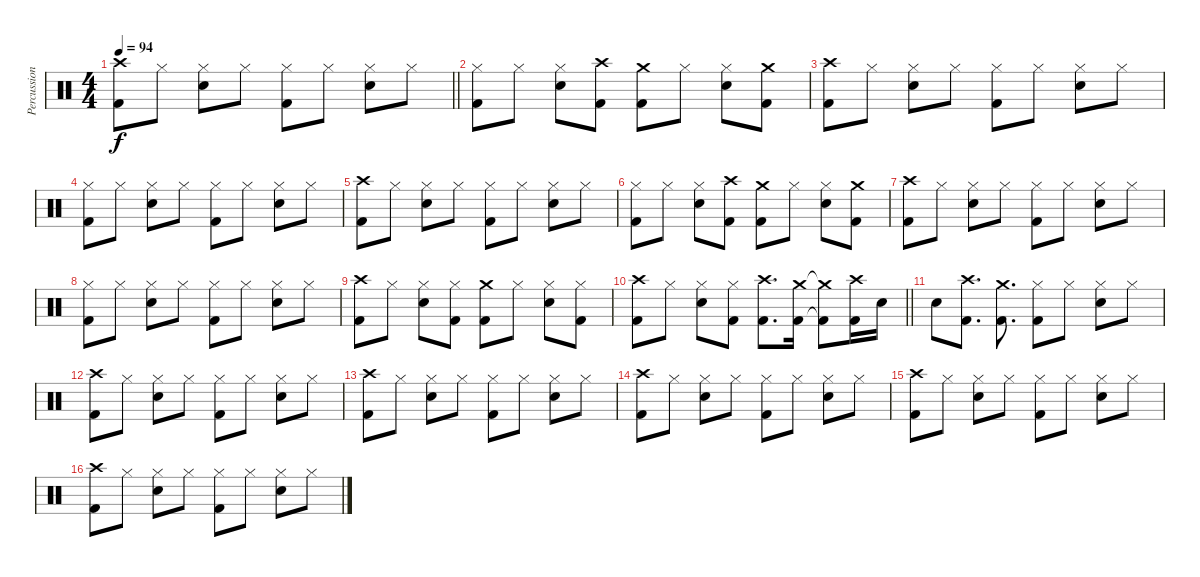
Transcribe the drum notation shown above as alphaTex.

\track ("Percussion" "Percussion") {instrument percussion}
\staff {score}
\articulation defaults
\ts (4 4)
\tempo 94
\clef neutral
\barLineRight lightlight
\ks c
("Crash high (hit)" "Kick (hit) 2").8{dy f} "Hi-Hat (closed)".8 ("Hi-Hat (closed)" "Snare (hit) 2").8 "Hi-Hat (closed)".8 ("Hi-Hat (closed)" "Kick (hit) 2").8 "Hi-Hat (closed)".8 ("Hi-Hat (closed)" "Snare (hit) 2").8 "Hi-Hat (closed)".8 |
("Hi-Hat (closed)" "Kick (hit) 2").8 "Hi-Hat (closed)".8 ("Hi-Hat (closed)" "Snare (hit) 2").8 ("Crash high (hit)" "Kick (hit) 2").8 ("Crash medium (hit)" "Kick (hit) 2").8 "Hi-Hat (closed)".8 ("Hi-Hat (closed)" "Snare (hit) 2").8 ("Crash medium (hit)" "Kick (hit) 2").8 |
("Crash high (hit)" "Kick (hit) 2").8 "Hi-Hat (closed)".8 ("Hi-Hat (closed)" "Snare (hit) 2").8 "Hi-Hat (closed)".8 ("Hi-Hat (closed)" "Kick (hit) 2").8 "Hi-Hat (closed)".8 ("Hi-Hat (closed)" "Snare (hit) 2").8 "Hi-Hat (closed)".8 |
("Hi-Hat (closed)" "Kick (hit) 2").8 "Hi-Hat (closed)".8 ("Hi-Hat (closed)" "Snare (hit) 2").8 "Hi-Hat (closed)".8 ("Hi-Hat (closed)" "Kick (hit) 2").8 "Hi-Hat (closed)".8 ("Hi-Hat (closed)" "Snare (hit) 2").8 "Hi-Hat (closed)".8 |
("Crash high (hit)" "Kick (hit) 2").8 "Hi-Hat (closed)".8 ("Hi-Hat (closed)" "Snare (hit) 2").8 "Hi-Hat (closed)".8 ("Hi-Hat (closed)" "Kick (hit) 2").8 "Hi-Hat (closed)".8 ("Hi-Hat (closed)" "Snare (hit) 2").8 "Hi-Hat (closed)".8 |
("Hi-Hat (closed)" "Kick (hit) 2").8 "Hi-Hat (closed)".8 ("Hi-Hat (closed)" "Snare (hit) 2").8 ("Crash high (hit)" "Kick (hit) 2").8 ("Crash medium (hit)" "Kick (hit) 2").8 "Hi-Hat (closed)".8 ("Hi-Hat (closed)" "Snare (hit) 2").8 ("Crash medium (hit)" "Kick (hit) 2").8 |
("Crash high (hit)" "Kick (hit) 2").8 "Hi-Hat (closed)".8 ("Hi-Hat (closed)" "Snare (hit) 2").8 "Hi-Hat (closed)".8 ("Hi-Hat (closed)" "Kick (hit) 2").8 "Hi-Hat (closed)".8 ("Hi-Hat (closed)" "Snare (hit) 2").8 "Hi-Hat (closed)".8 |
("Hi-Hat (closed)" "Kick (hit) 2").8 "Hi-Hat (closed)".8 ("Hi-Hat (closed)" "Snare (hit) 2").8 "Hi-Hat (closed)".8 ("Hi-Hat (closed)" "Kick (hit) 2").8 "Hi-Hat (closed)".8 ("Hi-Hat (closed)" "Snare (hit) 2").8 "Hi-Hat (closed)".8 |
("Crash high (hit)" "Kick (hit) 2").8 "Hi-Hat (closed)".8 ("Hi-Hat (closed)" "Snare (hit) 2").8 ("Hi-Hat (closed)" "Kick (hit) 2").8 ("Crash medium (hit)" "Kick (hit) 2").8 "Hi-Hat (closed)".8 ("Hi-Hat (closed)" "Snare (hit) 2").8 ("Hi-Hat (closed)" "Kick (hit) 2").8 |
\barLineRight lightlight
("Crash high (hit)" "Kick (hit) 2").8 "Hi-Hat (closed)".8 ("Hi-Hat (closed)" "Snare (hit) 2").8 ("Hi-Hat (closed)" "Kick (hit) 2").8 ("Crash high (hit)" "Kick (hit) 2").8{d} ("Crash medium (hit)" "Kick (hit) 2").16 ("Crash medium (hit)"{t} "Kick (hit) 2"{t}).8 ("Crash high (hit)" "Kick (hit) 2").16 "Snare (hit) 2".16 |
"Snare (hit) 2".8 ("Crash high (hit)" "Kick (hit) 2").8{d} ("Crash medium (hit)" "Kick (hit) 2").8{d} ("Hi-Hat (closed)" "Kick (hit) 2").8 "Hi-Hat (closed)".8 ("Hi-Hat (closed)" "Snare (hit) 2").8 "Hi-Hat (closed)".8 |
("Crash high (hit)" "Kick (hit) 2").8 "Hi-Hat (closed)".8 ("Hi-Hat (closed)" "Snare (hit) 2").8 "Hi-Hat (closed)".8 ("Hi-Hat (closed)" "Kick (hit) 2").8 "Hi-Hat (closed)".8 ("Hi-Hat (closed)" "Snare (hit) 2").8 "Hi-Hat (closed)".8 |
("Crash high (hit)" "Kick (hit) 2").8 "Hi-Hat (closed)".8 ("Hi-Hat (closed)" "Snare (hit) 2").8 "Hi-Hat (closed)".8 ("Hi-Hat (closed)" "Kick (hit) 2").8 "Hi-Hat (closed)".8 ("Hi-Hat (closed)" "Snare (hit) 2").8 "Hi-Hat (closed)".8 |
("Crash high (hit)" "Kick (hit) 2").8 "Hi-Hat (closed)".8 ("Hi-Hat (closed)" "Snare (hit) 2").8 "Hi-Hat (closed)".8 ("Hi-Hat (closed)" "Kick (hit) 2").8 "Hi-Hat (closed)".8 ("Hi-Hat (closed)" "Snare (hit) 2").8 "Hi-Hat (closed)".8 |
("Crash high (hit)" "Kick (hit) 2").8 "Hi-Hat (closed)".8 ("Hi-Hat (closed)" "Snare (hit) 2").8 "Hi-Hat (closed)".8 ("Hi-Hat (closed)" "Kick (hit) 2").8 "Hi-Hat (closed)".8 ("Hi-Hat (closed)" "Snare (hit) 2").8 "Hi-Hat (closed)".8 |
("Crash high (hit)" "Kick (hit) 2").8 "Hi-Hat (closed)".8 ("Hi-Hat (closed)" "Snare (hit) 2").8 "Hi-Hat (closed)".8 ("Hi-Hat (closed)" "Kick (hit) 2").8 "Hi-Hat (closed)".8 ("Hi-Hat (closed)" "Snare (hit) 2").8 "Hi-Hat (closed)".8
